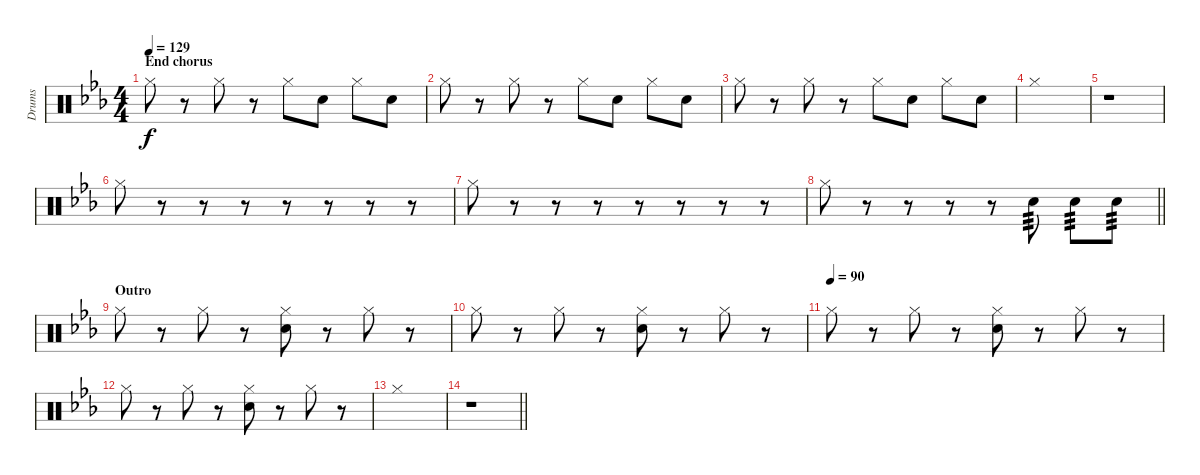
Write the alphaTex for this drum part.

\track ("Drums" "Drums") {instrument percussion}
\staff {score}
\articulation defaults
\ts (4 4)
\section ("" "End chorus")
\tempo 129
\clef neutral
\ks eb "Hi-Hat (closed)".8{dy f}
r.8 "Hi-Hat (closed)".8 r.8 "Hi-Hat (closed)".8 "Snare (hit) 2".8 "Hi-Hat (closed)".8 "Snare (hit) 2".8 |
"Hi-Hat (closed)".8 r.8 "Hi-Hat (closed)".8 r.8 "Hi-Hat (closed)".8 "Snare (hit) 2".8 "Hi-Hat (closed)".8 "Snare (hit) 2".8 |
"Hi-Hat (closed)".8 r.8 "Hi-Hat (closed)".8 r.8 "Hi-Hat (closed)".8 "Snare (hit) 2".8 "Hi-Hat (closed)".8 "Snare (hit) 2".8 |
"Hi-Hat (closed)".1 |
r.1 |
"Hi-Hat (closed)".8 r.8 r.8 r.8 r.8 r.8 r.8 r.8 |
"Hi-Hat (closed)".8 r.8 r.8 r.8 r.8 r.8 r.8 r.8 |
\barLineRight lightlight "Hi-Hat (closed)".8
r.8 r.8 r.8 r.8 "Snare (hit) 2".8{tp 3} "Snare (hit) 2".8{tp 3} "Snare (hit) 2".8{tp 3} |
\section ("" "Outro")
"Hi-Hat (closed)".8 r.8 "Hi-Hat (closed)".8 r.8 ("Hi-Hat (closed)" "Snare (hit) 2").8 r.8 "Hi-Hat (closed)".8 r.8 |
"Hi-Hat (closed)".8 r.8 "Hi-Hat (closed)".8 r.8 ("Hi-Hat (closed)" "Snare (hit) 2").8 r.8 "Hi-Hat (closed)".8 r.8 |
\tempo (90)
"Hi-Hat (closed)".8 r.8 "Hi-Hat (closed)".8 r.8 ("Hi-Hat (closed)" "Snare (hit) 2").8 r.8 "Hi-Hat (closed)".8 r.8 |
"Hi-Hat (closed)".8 r.8 "Hi-Hat (closed)".8 r.8 ("Hi-Hat (closed)" "Snare (hit) 2").8 r.8 "Hi-Hat (closed)".8 r.8 |
"Hi-Hat (closed)".1 |
\barLineRight lightlight
r.1
